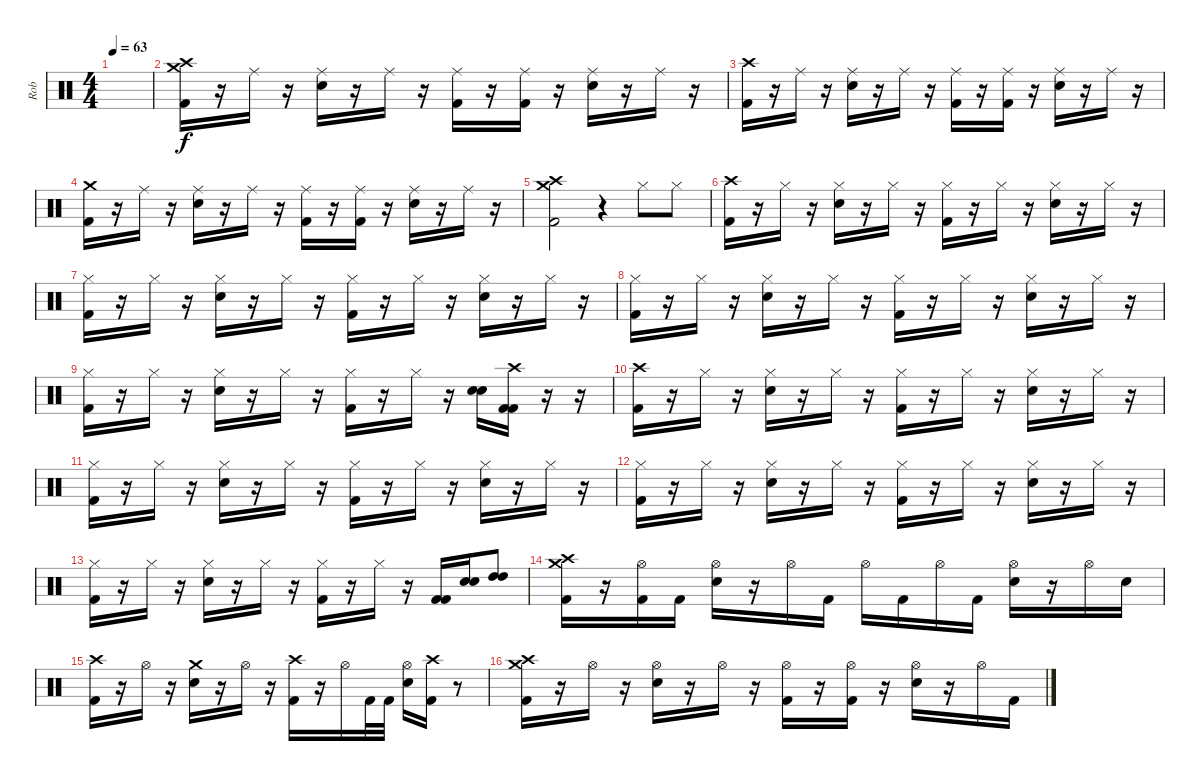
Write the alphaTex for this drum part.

\track ("Rob" "Rob") {instrument percussion}
\staff {score}
\articulation defaults
\ts (4 4)
\tempo 63
\clef neutral
\ks c
|
("Crash medium (hit)" "Crash high (hit)" "Kick (hit) 2").16 r.16 "Ride (middle)".16 r.16 ("Ride (middle)" "Electric Snare (hit)").16 r.16 "Ride (middle)".16 r.16 ("Ride (middle)" "Kick (hit) 2").16 r.16 ("Ride (middle)" "Kick (hit) 2").16 r.16 ("Ride (middle)" "Electric Snare (hit)").16 r.16 "Ride (middle)".16 r.16 |
("Crash high (hit)" "Kick (hit) 2").16 r.16 "Ride (middle)".16 r.16 ("Ride (middle)" "Electric Snare (hit)").16 r.16 "Ride (middle)".16 r.16 ("Ride (middle)" "Kick (hit) 2").16 r.16 ("Ride (middle)" "Kick (hit) 2").16 r.16 ("Ride (middle)" "Electric Snare (hit)").16 r.16 "Ride (middle)".16 r.16 |
("Crash medium (hit)" "Kick (hit) 2").16 r.16 "Ride (middle)".16 r.16 ("Ride (middle)" "Electric Snare (hit)").16 r.16 "Ride (middle)".16 r.16 ("Ride (middle)" "Kick (hit) 2").16 r.16 ("Ride (middle)" "Kick (hit) 2").16 r.16 ("Ride (middle)" "Electric Snare (hit)").16 r.16 "Ride (middle)".16 r.16 |
("Crash medium (hit)" "Crash high (hit)" "Kick (hit) 2").2 r.4 "Hi-Hat (closed)".8 "Hi-Hat (closed)".8 |
("Crash high (hit)" "Kick (hit) 2").16 r.16 "Hi-Hat (closed)".16 r.16 ("Hi-Hat (closed)" "Electric Snare (hit)").16 r.16 "Hi-Hat (closed)".16 r.16 ("Hi-Hat (closed)" "Kick (hit) 2").16 r.16 "Hi-Hat (closed)".16 r.16 ("Hi-Hat (closed)" "Electric Snare (hit)").16 r.16 "Hi-Hat (closed)".16 r.16 |
("Hi-Hat (closed)" "Kick (hit) 2").16 r.16 "Hi-Hat (closed)".16 r.16 ("Hi-Hat (closed)" "Electric Snare (hit)").16 r.16 "Hi-Hat (closed)".16 r.16 ("Hi-Hat (closed)" "Kick (hit) 2").16 r.16 "Hi-Hat (closed)".16 r.16 ("Hi-Hat (closed)" "Electric Snare (hit)").16 r.16 "Hi-Hat (closed)".16 r.16 |
("Hi-Hat (closed)" "Kick (hit) 2").16 r.16 "Hi-Hat (closed)".16 r.16 ("Hi-Hat (closed)" "Electric Snare (hit)").16 r.16 "Hi-Hat (closed)".16 r.16 ("Hi-Hat (closed)" "Kick (hit) 2").16 r.16 "Hi-Hat (closed)".16 r.16 ("Hi-Hat (closed)" "Electric Snare (hit)").16 r.16 "Hi-Hat (closed)".16 r.16 |
("Hi-Hat (closed)" "Kick (hit) 2").16 r.16 "Hi-Hat (closed)".16 r.16 ("Hi-Hat (closed)" "Electric Snare (hit)").16 r.16 "Hi-Hat (closed)".16 r.16 ("Hi-Hat (closed)" "Kick (hit) 2").16 r.16 "Hi-Hat (closed)".16 r.16 ("Electric Snare (hit)" "Electric Snare (hit)").16 ("Crash high (hit)" "Kick (hit) 2" "Kick (hit) 2").16 r.16 r.16 |
("Crash high (hit)" "Kick (hit) 2").16 r.16 "Hi-Hat (closed)".16 r.16 ("Hi-Hat (closed)" "Electric Snare (hit)").16 r.16 "Hi-Hat (closed)".16 r.16 ("Hi-Hat (closed)" "Kick (hit) 2").16 r.16 "Hi-Hat (closed)".16 r.16 ("Hi-Hat (closed)" "Electric Snare (hit)").16 r.16 "Hi-Hat (closed)".16 r.16 |
("Hi-Hat (closed)" "Kick (hit) 2").16 r.16 "Hi-Hat (closed)".16 r.16 ("Hi-Hat (closed)" "Electric Snare (hit)").16 r.16 "Hi-Hat (closed)".16 r.16 ("Hi-Hat (closed)" "Kick (hit) 2").16 r.16 "Hi-Hat (closed)".16 r.16 ("Hi-Hat (closed)" "Electric Snare (hit)").16 r.16 "Hi-Hat (closed)".16 r.16 |
("Hi-Hat (closed)" "Kick (hit) 2").16 r.16 "Hi-Hat (closed)".16 r.16 ("Hi-Hat (closed)" "Electric Snare (hit)").16 r.16 "Hi-Hat (closed)".16 r.16 ("Hi-Hat (closed)" "Kick (hit) 2").16 r.16 "Hi-Hat (closed)".16 r.16 ("Hi-Hat (closed)" "Electric Snare (hit)").16 r.16 "Hi-Hat (closed)".16 r.16 |
("Hi-Hat (closed)" "Kick (hit) 2").16 r.16 "Hi-Hat (closed)".16 r.16 ("Hi-Hat (closed)" "Electric Snare (hit)").16 r.16 "Hi-Hat (closed)".16 r.16 ("Hi-Hat (closed)" "Kick (hit) 2").16 r.16 "Hi-Hat (closed)".16 r.16 ("Kick (hit) 2" "Kick (hit) 2").16 ("Electric Snare (hit)" "Electric Snare (hit)").16 ("High Tom (hit)" "High Tom (hit)").8 |
("Crash medium (hit)" "Crash high (hit)" "Kick (hit) 2").16 r.16 ("Hi-Hat (open)" "Kick (hit) 2").16 "Kick (hit) 2".16 ("Hi-Hat (open)" "Electric Snare (hit)").16 r.16 "Hi-Hat (open)".16 "Kick (hit) 2".16 "Hi-Hat (open)".16 "Kick (hit) 2".16 "Hi-Hat (open)".16 "Kick (hit) 2".16 ("Hi-Hat (open)" "Electric Snare (hit)").16 r.16 "Hi-Hat (open)".16 "Electric Snare (hit)".16 |
("Crash high (hit)" "Kick (hit) 2").16 r.16 "Hi-Hat (open)".16 r.16 ("Crash medium (hit)" "Electric Snare (hit)").16 r.16 "Hi-Hat (open)".16 r.16 ("Crash high (hit)" "Kick (hit) 2").16 r.16 "Hi-Hat (open)".16 "Kick (hit) 2".32 "Kick (hit) 2".32 ("Hi-Hat (open)" "Electric Snare (hit)").16 ("Crash high (hit)" "Kick (hit) 2").16 r.8 |
("Crash medium (hit)" "Crash high (hit)" "Kick (hit) 2").16 r.16 "Hi-Hat (open)".16 r.16 ("Hi-Hat (open)" "Electric Snare (hit)").16 r.16 "Hi-Hat (open)".16 r.16 ("Hi-Hat (open)" "Kick (hit) 2").16 r.16 ("Hi-Hat (open)" "Kick (hit) 2").16 r.16 ("Hi-Hat (open)" "Electric Snare (hit)").16 r.16 "Hi-Hat (open)".16 "Kick (hit) 2".16
